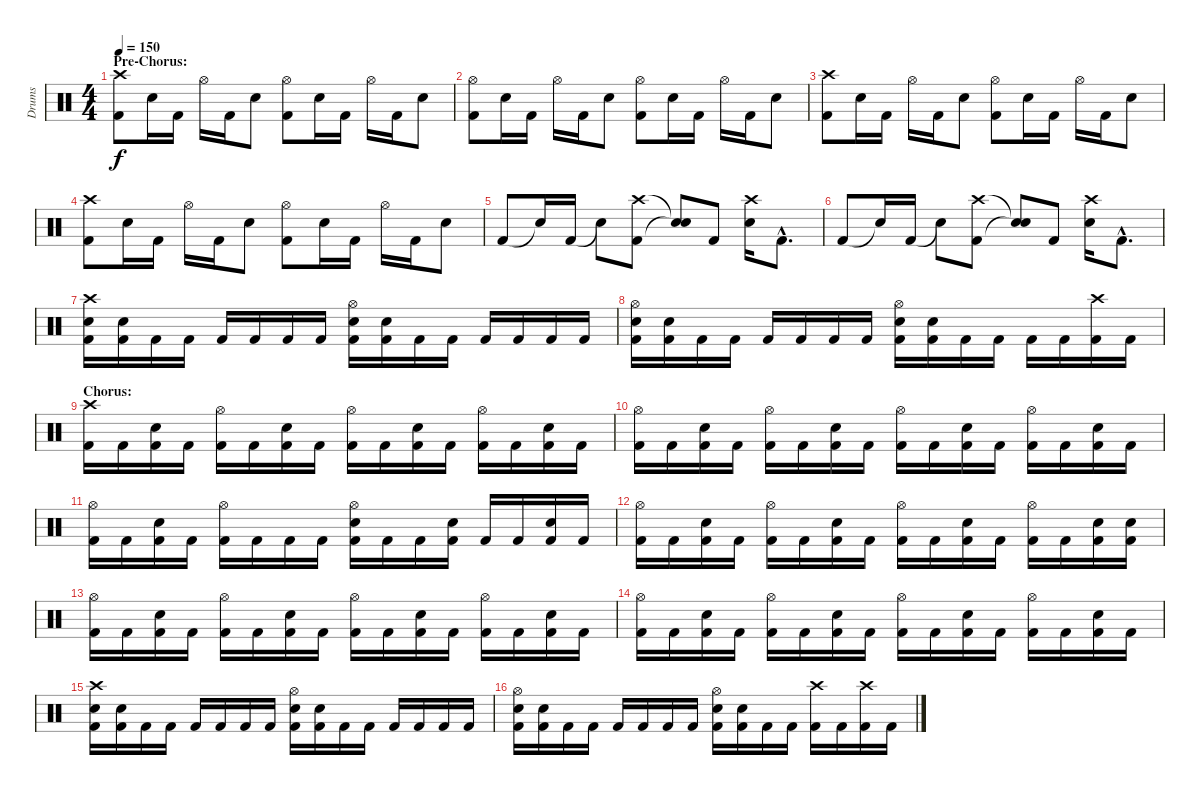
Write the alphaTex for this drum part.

\track ("Drums" "Drums") {instrument percussion}
\staff {score}
\articulation defaults
\ts (4 4)
\section ("" "Pre-Chorus:")
\tempo 150
\clef neutral
\ks c
("Crash high (hit)" "Kick (hit) 2").8{dy f} "Electric Snare (hit)".16 "Kick (hit) 2".16 "Hi-Hat (open)".16 "Kick (hit) 2".16 "Electric Snare (hit)".8 ("Hi-Hat (open)" "Kick (hit) 2").8 "Electric Snare (hit)".16 "Kick (hit) 2".16 "Hi-Hat (open)".16 "Kick (hit) 2".16 "Electric Snare (hit)".8 |
("Hi-Hat (open)" "Kick (hit) 2").8 "Electric Snare (hit)".16 "Kick (hit) 2".16 "Hi-Hat (open)".16 "Kick (hit) 2".16 "Electric Snare (hit)".8 ("Hi-Hat (open)" "Kick (hit) 2").8 "Electric Snare (hit)".16 "Kick (hit) 2".16 "Hi-Hat (open)".16 "Kick (hit) 2".16 "Electric Snare (hit)".8 |
("Crash high (hit)" "Kick (hit) 2").8 "Electric Snare (hit)".16 "Kick (hit) 2".16 "Hi-Hat (open)".16 "Kick (hit) 2".16 "Electric Snare (hit)".8 ("Hi-Hat (open)" "Kick (hit) 2").8 "Electric Snare (hit)".16 "Kick (hit) 2".16 "Hi-Hat (open)".16 "Kick (hit) 2".16 "Electric Snare (hit)".8 |
("Crash high (hit)" "Kick (hit) 2").8 "Electric Snare (hit)".16 "Kick (hit) 2".16 "Hi-Hat (open)".16 "Kick (hit) 2".16 "Electric Snare (hit)".8 ("Hi-Hat (open)" "Kick (hit) 2").8 "Electric Snare (hit)".16 "Kick (hit) 2".16 "Hi-Hat (open)".16 "Kick (hit) 2".16 "Electric Snare (hit)".8 |
"Kick (hit) 2".8 "Snare (hit)"{t}.16 "Kick (hit) 2".16 "Snare (hit)"{t}.8 ("Crash high (hit)" "Kick (hit) 2").8 ("Snare (hit)"{t} "Snare (hit)"{t}).8 "Kick (hit) 2".8 ("Crash high (hit)" "Electric Snare (hit)").16 "Kick (hit) 2"{hac}.8{d} |
"Kick (hit) 2".8 "Snare (hit)"{t}.16 "Kick (hit) 2".16 "Snare (hit)"{t}.8 ("Crash high (hit)" "Kick (hit) 2").8 ("Snare (hit)"{t} "Snare (hit)"{t}).8 "Kick (hit) 2".8 ("Crash high (hit)" "Electric Snare (hit)").16 "Kick (hit) 2"{hac}.8{d} |
("Crash high (hit)" "Electric Snare (hit)" "Kick (hit) 2").16 ("Electric Snare (hit)" "Kick (hit) 2").16 "Kick (hit) 2".16 "Kick (hit) 2".16 "Kick (hit) 2".16 "Kick (hit) 2".16 "Kick (hit) 2".16 "Kick (hit) 2".16 ("Hi-Hat (open)" "Electric Snare (hit)" "Kick (hit) 2").16 ("Electric Snare (hit)" "Kick (hit) 2").16 "Kick (hit) 2".16 "Kick (hit) 2".16 "Kick (hit) 2".16 "Kick (hit) 2".16 "Kick (hit) 2".16 "Kick (hit) 2".16 |
("Hi-Hat (open)" "Electric Snare (hit)" "Kick (hit) 2").16 ("Electric Snare (hit)" "Kick (hit) 2").16 "Kick (hit) 2".16 "Kick (hit) 2".16 "Kick (hit) 2".16 "Kick (hit) 2".16 "Kick (hit) 2".16 "Kick (hit) 2".16 ("Hi-Hat (open)" "Electric Snare (hit)" "Kick (hit) 2").16 ("Electric Snare (hit)" "Kick (hit) 2").16 "Kick (hit) 2".16 "Kick (hit) 2".16 "Kick (hit) 2".16 "Kick (hit) 2".16 ("Crash high (hit)" "Kick (hit) 2").16 "Kick (hit) 2".16 |
\section ("" "Chorus:")
("Crash high (hit)" "Kick (hit) 2").16 "Kick (hit) 2".16 ("Electric Snare (hit)" "Kick (hit) 2").16 "Kick (hit) 2".16 ("Hi-Hat (open)" "Kick (hit) 2").16 "Kick (hit) 2".16 ("Electric Snare (hit)" "Kick (hit) 2").16 "Kick (hit) 2".16 ("Hi-Hat (open)" "Kick (hit) 2").16 "Kick (hit) 2".16 ("Electric Snare (hit)" "Kick (hit) 2").16 "Kick (hit) 2".16 ("Hi-Hat (open)" "Kick (hit) 2").16 "Kick (hit) 2".16 ("Electric Snare (hit)" "Kick (hit) 2").16 "Kick (hit) 2".16 |
("Hi-Hat (open)" "Kick (hit) 2").16 "Kick (hit) 2".16 ("Electric Snare (hit)" "Kick (hit) 2").16 "Kick (hit) 2".16 ("Hi-Hat (open)" "Kick (hit) 2").16 "Kick (hit) 2".16 ("Electric Snare (hit)" "Kick (hit) 2").16 "Kick (hit) 2".16 ("Hi-Hat (open)" "Kick (hit) 2").16 "Kick (hit) 2".16 ("Electric Snare (hit)" "Kick (hit) 2").16 "Kick (hit) 2".16 ("Hi-Hat (open)" "Kick (hit) 2").16 "Kick (hit) 2".16 ("Electric Snare (hit)" "Kick (hit) 2").16 "Kick (hit) 2".16 |
("Hi-Hat (open)" "Kick (hit) 2").16 "Kick (hit) 2".16 ("Electric Snare (hit)" "Kick (hit) 2").16 "Kick (hit) 2".16 ("Hi-Hat (open)" "Kick (hit) 2").16 "Kick (hit) 2".16 "Kick (hit) 2".16 "Kick (hit) 2".16 ("Hi-Hat (open)" "Electric Snare (hit)" "Kick (hit) 2").16 "Kick (hit) 2".16 "Kick (hit) 2".16 ("Electric Snare (hit)" "Kick (hit) 2").16 "Kick (hit) 2".16 "Kick (hit) 2".16 ("Electric Snare (hit)" "Kick (hit) 2").16 "Kick (hit) 2".16 |
("Hi-Hat (open)" "Kick (hit) 2").16 "Kick (hit) 2".16 ("Electric Snare (hit)" "Kick (hit) 2").16 "Kick (hit) 2".16 ("Hi-Hat (open)" "Kick (hit) 2").16 "Kick (hit) 2".16 ("Electric Snare (hit)" "Kick (hit) 2").16 "Kick (hit) 2".16 ("Hi-Hat (open)" "Kick (hit) 2").16 "Kick (hit) 2".16 ("Electric Snare (hit)" "Kick (hit) 2").16 "Kick (hit) 2".16 ("Hi-Hat (open)" "Kick (hit) 2").16 "Kick (hit) 2".16 ("Electric Snare (hit)" "Kick (hit) 2").16 ("Electric Snare (hit)" "Kick (hit) 2").16 |
("Hi-Hat (open)" "Kick (hit) 2").16 "Kick (hit) 2".16 ("Electric Snare (hit)" "Kick (hit) 2").16 "Kick (hit) 2".16 ("Hi-Hat (open)" "Kick (hit) 2").16 "Kick (hit) 2".16 ("Electric Snare (hit)" "Kick (hit) 2").16 "Kick (hit) 2".16 ("Hi-Hat (open)" "Kick (hit) 2").16 "Kick (hit) 2".16 ("Electric Snare (hit)" "Kick (hit) 2").16 "Kick (hit) 2".16 ("Hi-Hat (open)" "Kick (hit) 2").16 "Kick (hit) 2".16 ("Electric Snare (hit)" "Kick (hit) 2").16 "Kick (hit) 2".16 |
("Hi-Hat (open)" "Kick (hit) 2").16 "Kick (hit) 2".16 ("Electric Snare (hit)" "Kick (hit) 2").16 "Kick (hit) 2".16 ("Hi-Hat (open)" "Kick (hit) 2").16 "Kick (hit) 2".16 ("Electric Snare (hit)" "Kick (hit) 2").16 "Kick (hit) 2".16 ("Hi-Hat (open)" "Kick (hit) 2").16 "Kick (hit) 2".16 ("Electric Snare (hit)" "Kick (hit) 2").16 "Kick (hit) 2".16 ("Hi-Hat (open)" "Kick (hit) 2").16 "Kick (hit) 2".16 ("Electric Snare (hit)" "Kick (hit) 2").16 "Kick (hit) 2".16 |
("Crash high (hit)" "Electric Snare (hit)" "Kick (hit) 2").16 ("Electric Snare (hit)" "Kick (hit) 2").16 "Kick (hit) 2".16 "Kick (hit) 2".16 "Kick (hit) 2".16 "Kick (hit) 2".16 "Kick (hit) 2".16 "Kick (hit) 2".16 ("Hi-Hat (open)" "Electric Snare (hit)" "Kick (hit) 2").16 ("Electric Snare (hit)" "Kick (hit) 2").16 "Kick (hit) 2".16 "Kick (hit) 2".16 "Kick (hit) 2".16 "Kick (hit) 2".16 "Kick (hit) 2".16 "Kick (hit) 2".16 |
("Hi-Hat (open)" "Electric Snare (hit)" "Kick (hit) 2").16 ("Electric Snare (hit)" "Kick (hit) 2").16 "Kick (hit) 2".16 "Kick (hit) 2".16 "Kick (hit) 2".16 "Kick (hit) 2".16 "Kick (hit) 2".16 "Kick (hit) 2".16 ("Hi-Hat (open)" "Electric Snare (hit)" "Kick (hit) 2").16 ("Electric Snare (hit)" "Kick (hit) 2").16 "Kick (hit) 2".16 "Kick (hit) 2".16 ("Crash high (hit)" "Kick (hit) 2").16 "Kick (hit) 2".16 ("Crash high (hit)" "Kick (hit) 2").16 "Kick (hit) 2".16
